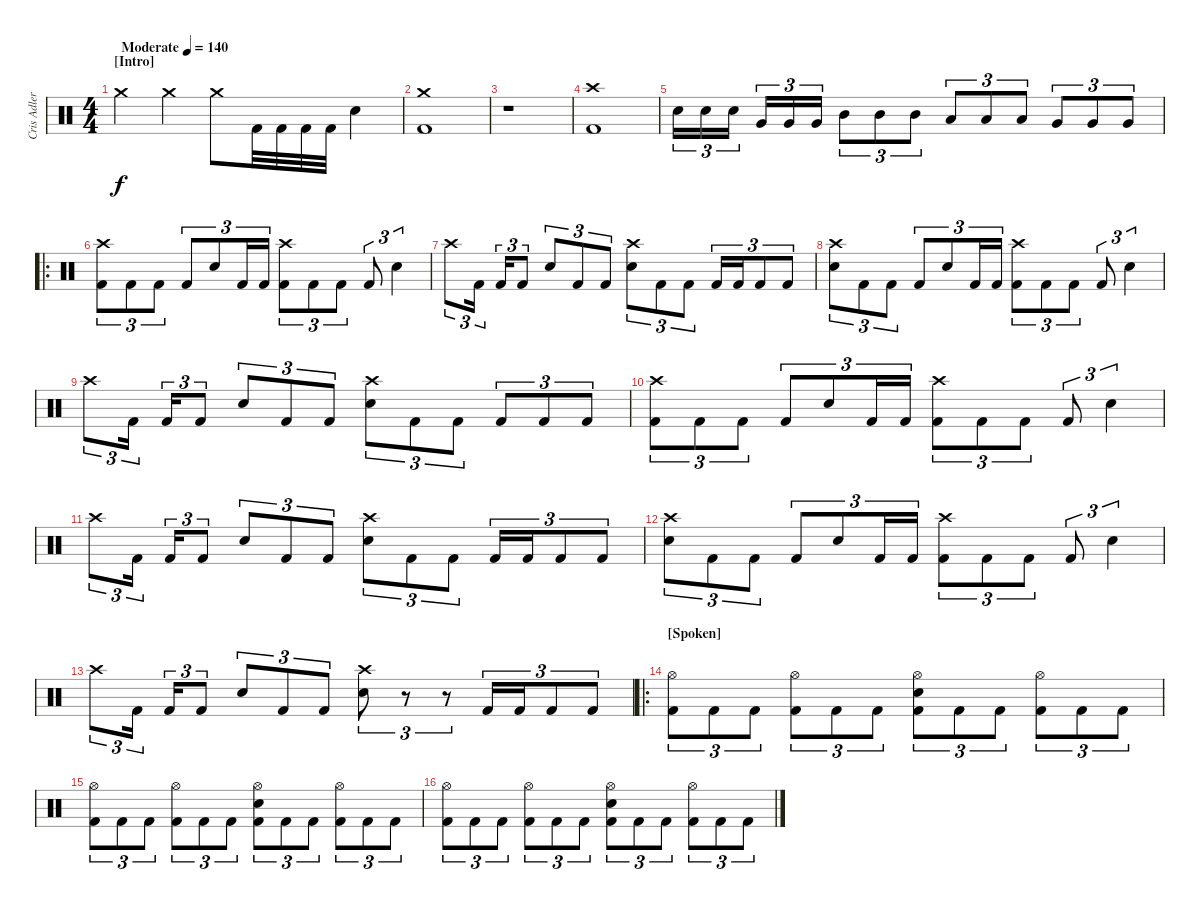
\track ("Cris Adler" "Cris Adler") {instrument percussion}
\staff {score}
\articulation defaults
\ts (4 4)
\section ("" "[Intro]")
\tempo (140 "Moderate")
\clef neutral
\ks c "Crash medium (hit)".4{dy f} "Crash medium (hit)".4 "Crash medium (hit)".8 "Kick (hit) 2".32 "Kick (hit) 2".32 "Kick (hit) 2".32 "Kick (hit) 2".32 "Electric Snare (hit)".4
|
("Crash medium (hit)" "Kick (hit) 2").1 |
r.1 |
("Crash high (hit)" "Kick (hit) 2").1 |
"Electric Snare (hit)".16{tu (3 2)} "Electric Snare (hit)".16{tu (3 2)} "Electric Snare (hit)".16{tu (3 2)} "Very Low Tom (hit)".16{tu (3 2)} "Very Low Tom (hit)".16{tu (3 2)} "Very Low Tom (hit)".16{tu (3 2)} "Mid Tom (hit)".8{tu (3 2)} "Mid Tom (hit)".8{tu (3 2)} "Mid Tom (hit)".8{tu (3 2)} "Low Floor Tom (hit)".8{tu (3 2)} "Low Floor Tom (hit)".8{tu (3 2)} "Low Floor Tom (hit)".8{tu (3 2)} "Very Low Tom (hit)".8{tu (3 2)} "Very Low Tom (hit)".8{tu (3 2)} "Very Low Tom (hit)".8{tu (3 2)} |
\ro
("Crash high (hit)" "Kick (hit) 2").8{tu (3 2)} "Kick (hit) 2".8{tu (3 2)} "Kick (hit) 2".8{tu (3 2)} "Kick (hit) 2".8{tu (3 2)} "Electric Snare (hit)".8{tu (3 2)} "Kick (hit) 2".16{tu (3 2)} "Kick (hit) 2".16{tu (3 2)} ("Crash high (hit)" "Kick (hit) 2").8{tu (3 2)} "Kick (hit) 2".8{tu (3 2)} "Kick (hit) 2".8{tu (3 2)} "Kick (hit) 2".8{tu (3 2)} "Electric Snare (hit)".4{tu (3 2)} |
"Crash high (hit)".8{tu (3 2)} "Kick (hit) 2".16{tu (3 2)} "Kick (hit) 2".16{tu (3 2)} "Kick (hit) 2".8{tu (3 2)} "Electric Snare (hit)".8{tu (3 2)} "Kick (hit) 2".8{tu (3 2)} "Kick (hit) 2".8{tu (3 2)} ("Crash high (hit)" "Electric Snare (hit)").8{tu (3 2)} "Kick (hit) 2".8{tu (3 2)} "Kick (hit) 2".8{tu (3 2)} "Kick (hit) 2".16{tu (3 2)} "Kick (hit) 2".16{tu (3 2)} "Kick (hit) 2".8{tu (3 2)} "Kick (hit) 2".8{tu (3 2)} |
("Crash high (hit)" "Electric Snare (hit)").8{tu (3 2)} "Kick (hit) 2".8{tu (3 2)} "Kick (hit) 2".8{tu (3 2)} "Kick (hit) 2".8{tu (3 2)} "Electric Snare (hit)".8{tu (3 2)} "Kick (hit) 2".16{tu (3 2)} "Kick (hit) 2".16{tu (3 2)} ("Crash high (hit)" "Kick (hit) 2").8{tu (3 2)} "Kick (hit) 2".8{tu (3 2)} "Kick (hit) 2".8{tu (3 2)} "Kick (hit) 2".8{tu (3 2)} "Electric Snare (hit)".4{tu (3 2)} |
"Crash high (hit)".8{tu (3 2)} "Kick (hit) 2".16{tu (3 2)} "Kick (hit) 2".16{tu (3 2)} "Kick (hit) 2".8{tu (3 2)} "Electric Snare (hit)".8{tu (3 2)} "Kick (hit) 2".8{tu (3 2)} "Kick (hit) 2".8{tu (3 2)} ("Crash high (hit)" "Electric Snare (hit)").8{tu (3 2)} "Kick (hit) 2".8{tu (3 2)} "Kick (hit) 2".8{tu (3 2)} "Kick (hit) 2".8{tu (3 2)} "Kick (hit) 2".8{tu (3 2)} "Kick (hit) 2".8{tu (3 2)} |
("Crash high (hit)" "Kick (hit) 2").8{tu (3 2)} "Kick (hit) 2".8{tu (3 2)} "Kick (hit) 2".8{tu (3 2)} "Kick (hit) 2".8{tu (3 2)} "Electric Snare (hit)".8{tu (3 2)} "Kick (hit) 2".16{tu (3 2)} "Kick (hit) 2".16{tu (3 2)} ("Crash high (hit)" "Kick (hit) 2").8{tu (3 2)} "Kick (hit) 2".8{tu (3 2)} "Kick (hit) 2".8{tu (3 2)} "Kick (hit) 2".8{tu (3 2)} "Electric Snare (hit)".4{tu (3 2)} |
"Crash high (hit)".8{tu (3 2)} "Kick (hit) 2".16{tu (3 2)} "Kick (hit) 2".16{tu (3 2)} "Kick (hit) 2".8{tu (3 2)} "Electric Snare (hit)".8{tu (3 2)} "Kick (hit) 2".8{tu (3 2)} "Kick (hit) 2".8{tu (3 2)} ("Crash high (hit)" "Electric Snare (hit)").8{tu (3 2)} "Kick (hit) 2".8{tu (3 2)} "Kick (hit) 2".8{tu (3 2)} "Kick (hit) 2".16{tu (3 2)} "Kick (hit) 2".16{tu (3 2)} "Kick (hit) 2".8{tu (3 2)} "Kick (hit) 2".8{tu (3 2)} |
("Crash high (hit)" "Electric Snare (hit)").8{tu (3 2)} "Kick (hit) 2".8{tu (3 2)} "Kick (hit) 2".8{tu (3 2)} "Kick (hit) 2".8{tu (3 2)} "Electric Snare (hit)".8{tu (3 2)} "Kick (hit) 2".16{tu (3 2)} "Kick (hit) 2".16{tu (3 2)} ("Crash high (hit)" "Kick (hit) 2").8{tu (3 2)} "Kick (hit) 2".8{tu (3 2)} "Kick (hit) 2".8{tu (3 2)} "Kick (hit) 2".8{tu (3 2)} "Electric Snare (hit)".4{tu (3 2)} |
"Crash high (hit)".8{tu (3 2)} "Kick (hit) 2".16{tu (3 2)} "Kick (hit) 2".16{tu (3 2)} "Kick (hit) 2".8{tu (3 2)} "Electric Snare (hit)".8{tu (3 2)} "Kick (hit) 2".8{tu (3 2)} "Kick (hit) 2".8{tu (3 2)} ("Crash high (hit)" "Electric Snare (hit)").8{tu (3 2)} r.8{tu (3 2)} r.8{tu (3 2)} "Kick (hit) 2".16{tu (3 2)} "Kick (hit) 2".16{tu (3 2)} "Kick (hit) 2".8{tu (3 2)} "Kick (hit) 2".8{tu (3 2)} |
\ro
\section ("" "[Spoken]")
("Hi-Hat (open)" "Kick (hit) 2").8{tu (3 2)} "Kick (hit) 2".8{tu (3 2)} "Kick (hit) 2".8{tu (3 2)} ("Hi-Hat (open)" "Kick (hit) 2").8{tu (3 2)} "Kick (hit) 2".8{tu (3 2)} "Kick (hit) 2".8{tu (3 2)} ("Hi-Hat (open)" "Electric Snare (hit)" "Kick (hit) 2").8{tu (3 2)} "Kick (hit) 2".8{tu (3 2)} "Kick (hit) 2".8{tu (3 2)} ("Hi-Hat (open)" "Kick (hit) 2").8{tu (3 2)} "Kick (hit) 2".8{tu (3 2)} "Kick (hit) 2".8{tu (3 2)} |
("Hi-Hat (open)" "Kick (hit) 2").8{tu (3 2)} "Kick (hit) 2".8{tu (3 2)} "Kick (hit) 2".8{tu (3 2)} ("Hi-Hat (open)" "Kick (hit) 2").8{tu (3 2)} "Kick (hit) 2".8{tu (3 2)} "Kick (hit) 2".8{tu (3 2)} ("Hi-Hat (open)" "Electric Snare (hit)" "Kick (hit) 2").8{tu (3 2)} "Kick (hit) 2".8{tu (3 2)} "Kick (hit) 2".8{tu (3 2)} ("Hi-Hat (open)" "Kick (hit) 2").8{tu (3 2)} "Kick (hit) 2".8{tu (3 2)} "Kick (hit) 2".8{tu (3 2)} |
("Hi-Hat (open)" "Kick (hit) 2").8{tu (3 2)} "Kick (hit) 2".8{tu (3 2)} "Kick (hit) 2".8{tu (3 2)} ("Hi-Hat (open)" "Kick (hit) 2").8{tu (3 2)} "Kick (hit) 2".8{tu (3 2)} "Kick (hit) 2".8{tu (3 2)} ("Hi-Hat (open)" "Electric Snare (hit)" "Kick (hit) 2").8{tu (3 2)} "Kick (hit) 2".8{tu (3 2)} "Kick (hit) 2".8{tu (3 2)} ("Hi-Hat (open)" "Kick (hit) 2").8{tu (3 2)} "Kick (hit) 2".8{tu (3 2)} "Kick (hit) 2".8{tu (3 2)}
